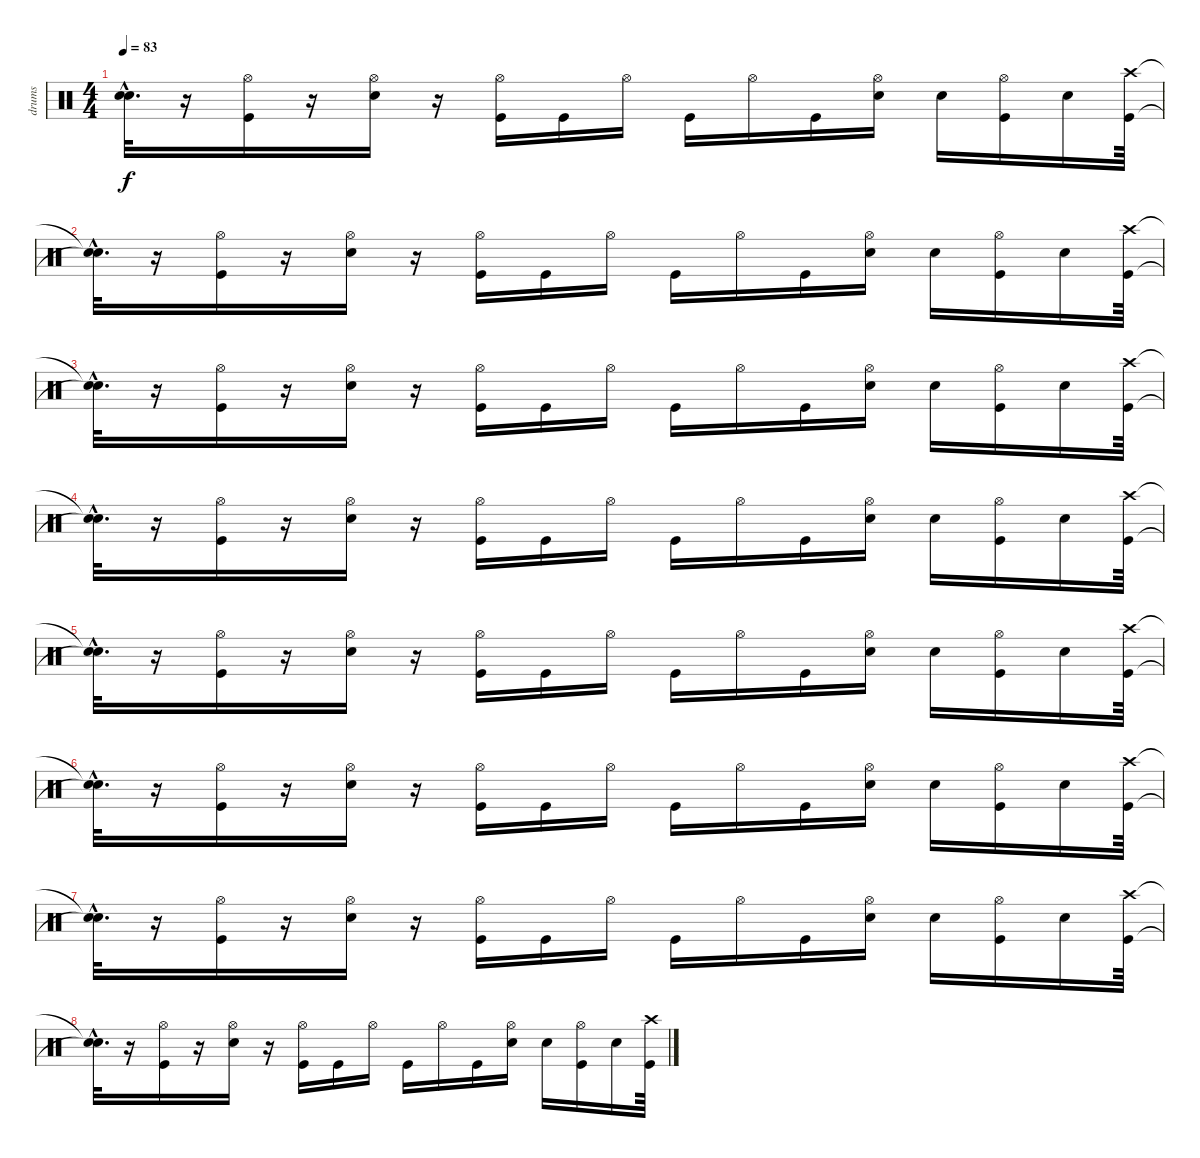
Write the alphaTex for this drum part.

\track ("drums" "drums") {instrument percussion}
\staff {score}
\articulation defaults
\ts (4 4)
\tempo 83
\clef neutral
\ks c
("Snare (hit)"{hac t} "Snare (hit)"{hac t}).32{d dy f} r.16 ("Hi-Hat (open)" "Kick (hit)").16 r.16 ("Hi-Hat (open)" "Electric Snare (hit)").16 r.16 ("Hi-Hat (open)" "Kick (hit)").16 "Kick (hit)".16 "Hi-Hat (open)".16 "Kick (hit)".16 "Hi-Hat (open)".16 "Kick (hit)".16 ("Hi-Hat (open)" "Electric Snare (hit)").16 "Electric Snare (hit)".16 ("Hi-Hat (open)" "Kick (hit)").16 "Electric Snare (hit)".16 ("Crash high (hit)" "Kick (hit)").64 |
("Snare (hit)"{hac t} "Snare (hit)"{hac t}).32{d} r.16 ("Hi-Hat (open)" "Kick (hit)").16 r.16 ("Hi-Hat (open)" "Electric Snare (hit)").16 r.16 ("Hi-Hat (open)" "Kick (hit)").16 "Kick (hit)".16 "Hi-Hat (open)".16 "Kick (hit)".16 "Hi-Hat (open)".16 "Kick (hit)".16 ("Hi-Hat (open)" "Electric Snare (hit)").16 "Electric Snare (hit)".16 ("Hi-Hat (open)" "Kick (hit)").16 "Electric Snare (hit)".16 ("Crash high (hit)" "Kick (hit)").64 |
("Snare (hit)"{hac t} "Snare (hit)"{hac t}).32{d} r.16 ("Hi-Hat (open)" "Kick (hit)").16 r.16 ("Hi-Hat (open)" "Electric Snare (hit)").16 r.16 ("Hi-Hat (open)" "Kick (hit)").16 "Kick (hit)".16 "Hi-Hat (open)".16 "Kick (hit)".16 "Hi-Hat (open)".16 "Kick (hit)".16 ("Hi-Hat (open)" "Electric Snare (hit)").16 "Electric Snare (hit)".16 ("Hi-Hat (open)" "Kick (hit)").16 "Electric Snare (hit)".16 ("Crash high (hit)" "Kick (hit)").64 |
("Snare (hit)"{hac t} "Snare (hit)"{hac t}).32{d} r.16 ("Hi-Hat (open)" "Kick (hit)").16 r.16 ("Hi-Hat (open)" "Electric Snare (hit)").16 r.16 ("Hi-Hat (open)" "Kick (hit)").16 "Kick (hit)".16 "Hi-Hat (open)".16 "Kick (hit)".16 "Hi-Hat (open)".16 "Kick (hit)".16 ("Hi-Hat (open)" "Electric Snare (hit)").16 "Electric Snare (hit)".16 ("Hi-Hat (open)" "Kick (hit)").16 "Electric Snare (hit)".16 ("Crash high (hit)" "Kick (hit)").64 |
("Snare (hit)"{hac t} "Snare (hit)"{hac t}).32{d} r.16 ("Hi-Hat (open)" "Kick (hit)").16 r.16 ("Hi-Hat (open)" "Electric Snare (hit)").16 r.16 ("Hi-Hat (open)" "Kick (hit)").16 "Kick (hit)".16 "Hi-Hat (open)".16 "Kick (hit)".16 "Hi-Hat (open)".16 "Kick (hit)".16 ("Hi-Hat (open)" "Electric Snare (hit)").16 "Electric Snare (hit)".16 ("Hi-Hat (open)" "Kick (hit)").16 "Electric Snare (hit)".16 ("Crash high (hit)" "Kick (hit)").64 |
("Snare (hit)"{hac t} "Snare (hit)"{hac t}).32{d} r.16 ("Hi-Hat (open)" "Kick (hit)").16 r.16 ("Hi-Hat (open)" "Electric Snare (hit)").16 r.16 ("Hi-Hat (open)" "Kick (hit)").16 "Kick (hit)".16 "Hi-Hat (open)".16 "Kick (hit)".16 "Hi-Hat (open)".16 "Kick (hit)".16 ("Hi-Hat (open)" "Electric Snare (hit)").16 "Electric Snare (hit)".16 ("Hi-Hat (open)" "Kick (hit)").16 "Electric Snare (hit)".16 ("Crash high (hit)" "Kick (hit)").64 |
("Snare (hit)"{hac t} "Snare (hit)"{hac t}).32{d} r.16 ("Hi-Hat (open)" "Kick (hit)").16 r.16 ("Hi-Hat (open)" "Electric Snare (hit)").16 r.16 ("Hi-Hat (open)" "Kick (hit)").16 "Kick (hit)".16 "Hi-Hat (open)".16 "Kick (hit)".16 "Hi-Hat (open)".16 "Kick (hit)".16 ("Hi-Hat (open)" "Electric Snare (hit)").16 "Electric Snare (hit)".16 ("Hi-Hat (open)" "Kick (hit)").16 "Electric Snare (hit)".16 ("Crash high (hit)" "Kick (hit)").64 |
("Snare (hit)"{hac t} "Snare (hit)"{hac t}).32{d} r.16 ("Hi-Hat (open)" "Kick (hit)").16 r.16 ("Hi-Hat (open)" "Electric Snare (hit)").16 r.16 ("Hi-Hat (open)" "Kick (hit)").16 "Kick (hit)".16 "Hi-Hat (open)".16 "Kick (hit)".16 "Hi-Hat (open)".16 "Kick (hit)".16 ("Hi-Hat (open)" "Electric Snare (hit)").16 "Electric Snare (hit)".16 ("Hi-Hat (open)" "Kick (hit)").16 "Electric Snare (hit)".16 ("Crash high (hit)" "Kick (hit)").64
